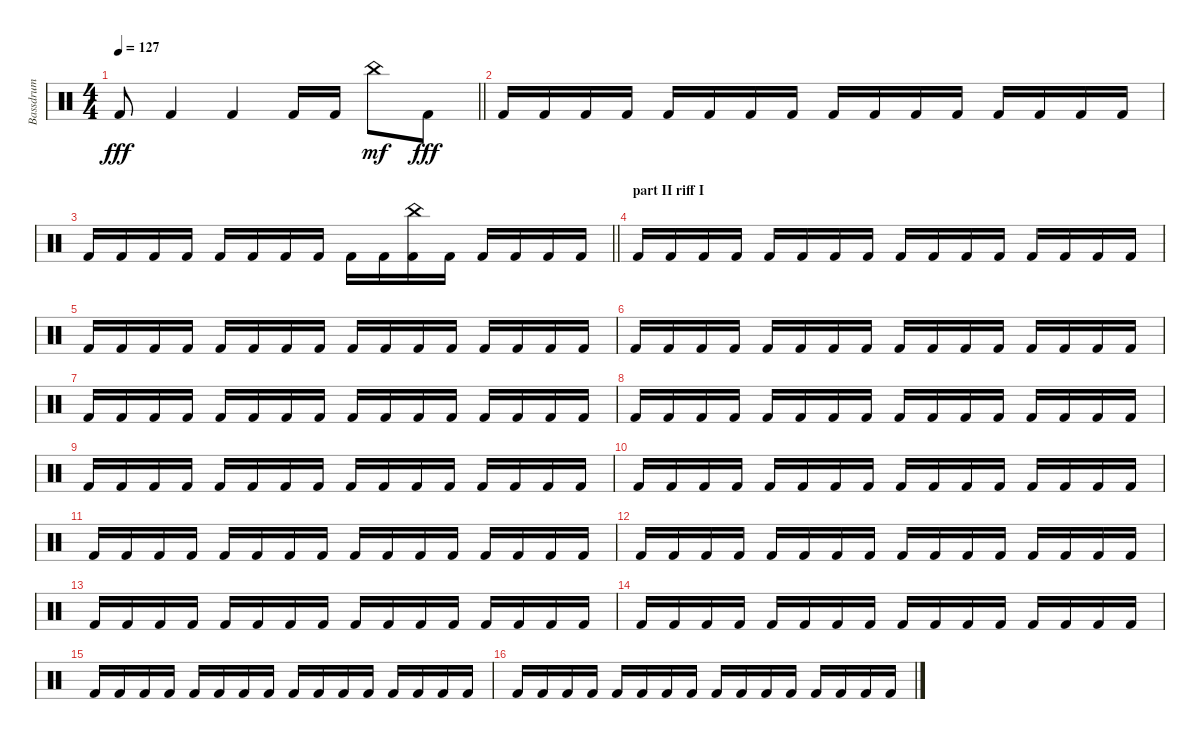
\track ("Bassdrum" "Bassdrum") {instrument percussion}
\staff {score}
\articulation defaults
\ts (4 4)
\tempo 127
\clef neutral
\barLineRight lightlight
\ks c "Kick (hit) 2".8{dy fff} "Kick (hit) 2".4 "Kick (hit) 2".4 "Kick (hit) 2".16 "Kick (hit) 2".16 "China (hit)".8{dy mf} "Kick (hit) 2".8{dy fff}
|
\section ("" "")
"Kick (hit) 2".16 "Kick (hit) 2".16 "Kick (hit) 2".16 "Kick (hit) 2".16 "Kick (hit) 2".16 "Kick (hit) 2".16 "Kick (hit) 2".16 "Kick (hit) 2".16 "Kick (hit) 2".16 "Kick (hit) 2".16 "Kick (hit) 2".16 "Kick (hit) 2".16 "Kick (hit) 2".16 "Kick (hit) 2".16 "Kick (hit) 2".16 "Kick (hit) 2".16 |
\barLineRight lightlight "Kick (hit) 2".16 "Kick (hit) 2".16 "Kick (hit) 2".16 "Kick (hit) 2".16 "Kick (hit) 2".16 "Kick (hit) 2".16 "Kick (hit) 2".16 "Kick (hit) 2".16 "Kick (hit) 2".16 "Kick (hit) 2".16
("China (hit)" "Kick (hit) 2").16 "Kick (hit) 2".16 "Kick (hit) 2".16 "Kick (hit) 2".16 "Kick (hit) 2".16 "Kick (hit) 2".16 |
\section ("" "part II riff I")
"Kick (hit) 2".16 "Kick (hit) 2".16 "Kick (hit) 2".16 "Kick (hit) 2".16 "Kick (hit) 2".16 "Kick (hit) 2".16 "Kick (hit) 2".16 "Kick (hit) 2".16 "Kick (hit) 2".16 "Kick (hit) 2".16 "Kick (hit) 2".16 "Kick (hit) 2".16 "Kick (hit) 2".16 "Kick (hit) 2".16 "Kick (hit) 2".16 "Kick (hit) 2".16 |
"Kick (hit) 2".16 "Kick (hit) 2".16 "Kick (hit) 2".16 "Kick (hit) 2".16 "Kick (hit) 2".16 "Kick (hit) 2".16 "Kick (hit) 2".16 "Kick (hit) 2".16 "Kick (hit) 2".16 "Kick (hit) 2".16 "Kick (hit) 2".16 "Kick (hit) 2".16 "Kick (hit) 2".16 "Kick (hit) 2".16 "Kick (hit) 2".16 "Kick (hit) 2".16 |
"Kick (hit) 2".16 "Kick (hit) 2".16 "Kick (hit) 2".16 "Kick (hit) 2".16 "Kick (hit) 2".16 "Kick (hit) 2".16 "Kick (hit) 2".16 "Kick (hit) 2".16 "Kick (hit) 2".16 "Kick (hit) 2".16 "Kick (hit) 2".16 "Kick (hit) 2".16 "Kick (hit) 2".16 "Kick (hit) 2".16 "Kick (hit) 2".16 "Kick (hit) 2".16 |
"Kick (hit) 2".16 "Kick (hit) 2".16 "Kick (hit) 2".16 "Kick (hit) 2".16 "Kick (hit) 2".16 "Kick (hit) 2".16 "Kick (hit) 2".16 "Kick (hit) 2".16 "Kick (hit) 2".16 "Kick (hit) 2".16 "Kick (hit) 2".16 "Kick (hit) 2".16 "Kick (hit) 2".16 "Kick (hit) 2".16 "Kick (hit) 2".16 "Kick (hit) 2".16 |
"Kick (hit) 2".16 "Kick (hit) 2".16 "Kick (hit) 2".16 "Kick (hit) 2".16 "Kick (hit) 2".16 "Kick (hit) 2".16 "Kick (hit) 2".16 "Kick (hit) 2".16 "Kick (hit) 2".16 "Kick (hit) 2".16 "Kick (hit) 2".16 "Kick (hit) 2".16 "Kick (hit) 2".16 "Kick (hit) 2".16 "Kick (hit) 2".16 "Kick (hit) 2".16 |
"Kick (hit) 2".16 "Kick (hit) 2".16 "Kick (hit) 2".16 "Kick (hit) 2".16 "Kick (hit) 2".16 "Kick (hit) 2".16 "Kick (hit) 2".16 "Kick (hit) 2".16 "Kick (hit) 2".16 "Kick (hit) 2".16 "Kick (hit) 2".16 "Kick (hit) 2".16 "Kick (hit) 2".16 "Kick (hit) 2".16 "Kick (hit) 2".16 "Kick (hit) 2".16 |
"Kick (hit) 2".16 "Kick (hit) 2".16 "Kick (hit) 2".16 "Kick (hit) 2".16 "Kick (hit) 2".16 "Kick (hit) 2".16 "Kick (hit) 2".16 "Kick (hit) 2".16 "Kick (hit) 2".16 "Kick (hit) 2".16 "Kick (hit) 2".16 "Kick (hit) 2".16 "Kick (hit) 2".16 "Kick (hit) 2".16 "Kick (hit) 2".16 "Kick (hit) 2".16 |
"Kick (hit) 2".16 "Kick (hit) 2".16 "Kick (hit) 2".16 "Kick (hit) 2".16 "Kick (hit) 2".16 "Kick (hit) 2".16 "Kick (hit) 2".16 "Kick (hit) 2".16 "Kick (hit) 2".16 "Kick (hit) 2".16 "Kick (hit) 2".16 "Kick (hit) 2".16 "Kick (hit) 2".16 "Kick (hit) 2".16 "Kick (hit) 2".16 "Kick (hit) 2".16 |
"Kick (hit) 2".16 "Kick (hit) 2".16 "Kick (hit) 2".16 "Kick (hit) 2".16 "Kick (hit) 2".16 "Kick (hit) 2".16 "Kick (hit) 2".16 "Kick (hit) 2".16 "Kick (hit) 2".16 "Kick (hit) 2".16 "Kick (hit) 2".16 "Kick (hit) 2".16 "Kick (hit) 2".16 "Kick (hit) 2".16 "Kick (hit) 2".16 "Kick (hit) 2".16 |
"Kick (hit) 2".16 "Kick (hit) 2".16 "Kick (hit) 2".16 "Kick (hit) 2".16 "Kick (hit) 2".16 "Kick (hit) 2".16 "Kick (hit) 2".16 "Kick (hit) 2".16 "Kick (hit) 2".16 "Kick (hit) 2".16 "Kick (hit) 2".16 "Kick (hit) 2".16 "Kick (hit) 2".16 "Kick (hit) 2".16 "Kick (hit) 2".16 "Kick (hit) 2".16 |
"Kick (hit) 2".16 "Kick (hit) 2".16 "Kick (hit) 2".16 "Kick (hit) 2".16 "Kick (hit) 2".16 "Kick (hit) 2".16 "Kick (hit) 2".16 "Kick (hit) 2".16 "Kick (hit) 2".16 "Kick (hit) 2".16 "Kick (hit) 2".16 "Kick (hit) 2".16 "Kick (hit) 2".16 "Kick (hit) 2".16 "Kick (hit) 2".16 "Kick (hit) 2".16 |
"Kick (hit) 2".16 "Kick (hit) 2".16 "Kick (hit) 2".16 "Kick (hit) 2".16 "Kick (hit) 2".16 "Kick (hit) 2".16 "Kick (hit) 2".16 "Kick (hit) 2".16 "Kick (hit) 2".16 "Kick (hit) 2".16 "Kick (hit) 2".16 "Kick (hit) 2".16 "Kick (hit) 2".16 "Kick (hit) 2".16 "Kick (hit) 2".16 "Kick (hit) 2".16 |
"Kick (hit) 2".16 "Kick (hit) 2".16 "Kick (hit) 2".16 "Kick (hit) 2".16 "Kick (hit) 2".16 "Kick (hit) 2".16 "Kick (hit) 2".16 "Kick (hit) 2".16 "Kick (hit) 2".16 "Kick (hit) 2".16 "Kick (hit) 2".16 "Kick (hit) 2".16 "Kick (hit) 2".16 "Kick (hit) 2".16 "Kick (hit) 2".16 "Kick (hit) 2".16
